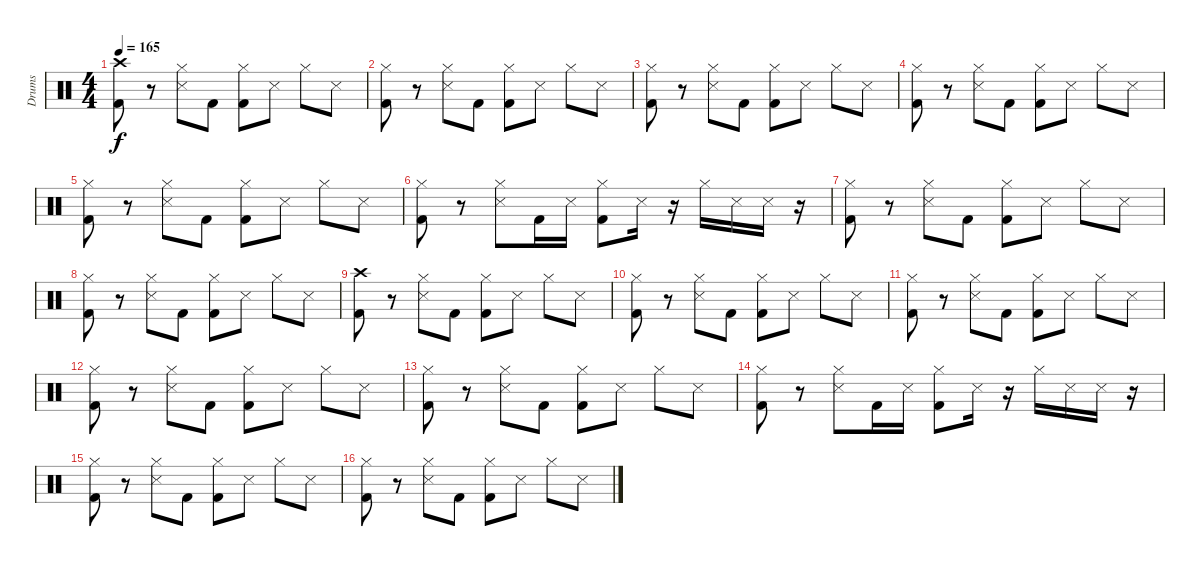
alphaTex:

\track ("Drums" "Drums") {instrument percussion}
\staff {score}
\articulation defaults
\ts (4 4)
\tempo 165
\clef neutral
\ks c
("Kick (hit) 2" "Crash high (hit)").8{dy f} r.8 ("Metronome (hit)" "Hi-Hat (closed)").8 "Kick (hit) 2".8 ("Kick (hit) 2" "Hi-Hat (closed)").8 "Metronome (hit)".8 "Hi-Hat (closed)".8 "Metronome (hit)".8 |
("Kick (hit) 2" "Hi-Hat (closed)").8 r.8 ("Metronome (hit)" "Hi-Hat (closed)").8 "Kick (hit) 2".8 ("Kick (hit) 2" "Hi-Hat (closed)").8 "Metronome (hit)".8 "Hi-Hat (closed)".8 "Metronome (hit)".8 |
("Kick (hit) 2" "Hi-Hat (closed)").8 r.8 ("Metronome (hit)" "Hi-Hat (closed)").8 "Kick (hit) 2".8 ("Kick (hit) 2" "Hi-Hat (closed)").8 "Metronome (hit)".8 "Hi-Hat (closed)".8 "Metronome (hit)".8 |
("Kick (hit) 2" "Hi-Hat (closed)").8 r.8 ("Metronome (hit)" "Hi-Hat (closed)").8 "Kick (hit) 2".8 ("Kick (hit) 2" "Hi-Hat (closed)").8 "Metronome (hit)".8 "Hi-Hat (closed)".8 "Metronome (hit)".8 |
("Kick (hit) 2" "Hi-Hat (closed)").8 r.8 ("Metronome (hit)" "Hi-Hat (closed)").8 "Kick (hit) 2".8 ("Kick (hit) 2" "Hi-Hat (closed)").8 "Metronome (hit)".8 "Hi-Hat (closed)".8 "Metronome (hit)".8 |
("Kick (hit) 2" "Hi-Hat (closed)").8 r.8 ("Metronome (hit)" "Hi-Hat (closed)").8 "Kick (hit) 2".16 "Metronome (hit)".16 ("Kick (hit) 2" "Hi-Hat (closed)").8 "Metronome (hit)".16 r.16 "Hi-Hat (closed)".16 "Metronome (hit)".16 "Metronome (hit)".16 r.16 |
("Kick (hit) 2" "Hi-Hat (closed)").8 r.8 ("Metronome (hit)" "Hi-Hat (closed)").8 "Kick (hit) 2".8 ("Kick (hit) 2" "Hi-Hat (closed)").8 "Metronome (hit)".8 "Hi-Hat (closed)".8 "Metronome (hit)".8 |
("Kick (hit) 2" "Hi-Hat (closed)").8 r.8 ("Metronome (hit)" "Hi-Hat (closed)").8 "Kick (hit) 2".8 ("Kick (hit) 2" "Hi-Hat (closed)").8 "Metronome (hit)".8 "Hi-Hat (closed)".8 "Metronome (hit)".8 |
("Kick (hit) 2" "Crash high (hit)").8 r.8 ("Metronome (hit)" "Hi-Hat (closed)").8 "Kick (hit) 2".8 ("Kick (hit) 2" "Hi-Hat (closed)").8 "Metronome (hit)".8 "Hi-Hat (closed)".8 "Metronome (hit)".8 |
("Kick (hit) 2" "Hi-Hat (closed)").8 r.8 ("Metronome (hit)" "Hi-Hat (closed)").8 "Kick (hit) 2".8 ("Kick (hit) 2" "Hi-Hat (closed)").8 "Metronome (hit)".8 "Hi-Hat (closed)".8 "Metronome (hit)".8 |
("Kick (hit) 2" "Hi-Hat (closed)").8 r.8 ("Metronome (hit)" "Hi-Hat (closed)").8 "Kick (hit) 2".8 ("Kick (hit) 2" "Hi-Hat (closed)").8 "Metronome (hit)".8 "Hi-Hat (closed)".8 "Metronome (hit)".8 |
("Kick (hit) 2" "Hi-Hat (closed)").8 r.8 ("Metronome (hit)" "Hi-Hat (closed)").8 "Kick (hit) 2".8 ("Kick (hit) 2" "Hi-Hat (closed)").8 "Metronome (hit)".8 "Hi-Hat (closed)".8 "Metronome (hit)".8 |
("Kick (hit) 2" "Hi-Hat (closed)").8 r.8 ("Metronome (hit)" "Hi-Hat (closed)").8 "Kick (hit) 2".8 ("Kick (hit) 2" "Hi-Hat (closed)").8 "Metronome (hit)".8 "Hi-Hat (closed)".8 "Metronome (hit)".8 |
("Kick (hit) 2" "Hi-Hat (closed)").8 r.8 ("Metronome (hit)" "Hi-Hat (closed)").8 "Kick (hit) 2".16 "Metronome (hit)".16 ("Kick (hit) 2" "Hi-Hat (closed)").8 "Metronome (hit)".16 r.16 "Hi-Hat (closed)".16 "Metronome (hit)".16 "Metronome (hit)".16 r.16 |
("Kick (hit) 2" "Hi-Hat (closed)").8 r.8 ("Metronome (hit)" "Hi-Hat (closed)").8 "Kick (hit) 2".8 ("Kick (hit) 2" "Hi-Hat (closed)").8 "Metronome (hit)".8 "Hi-Hat (closed)".8 "Metronome (hit)".8 |
("Kick (hit) 2" "Hi-Hat (closed)").8 r.8 ("Metronome (hit)" "Hi-Hat (closed)").8 "Kick (hit) 2".8 ("Kick (hit) 2" "Hi-Hat (closed)").8 "Metronome (hit)".8 "Hi-Hat (closed)".8 "Metronome (hit)".8
